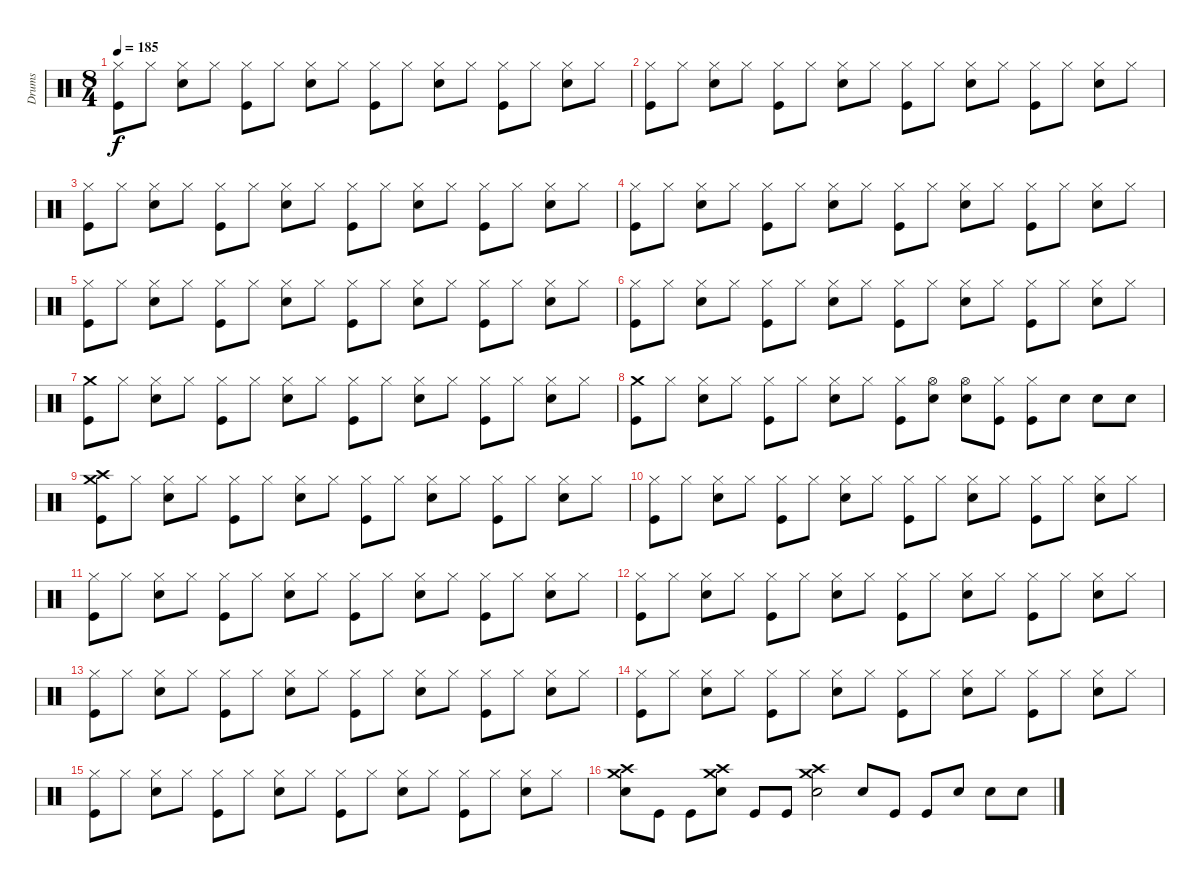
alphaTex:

\track ("Drums" "Drums") {instrument percussion}
\staff {score}
\articulation defaults
\ts (8 4)
\tempo 185
\clef neutral
\ks c
("Hi-Hat (closed)" "Kick (hit)").8{dy f} "Hi-Hat (closed)".8 ("Hi-Hat (closed)" "Snare (hit) 2").8 "Hi-Hat (closed)".8 ("Hi-Hat (closed)" "Kick (hit)").8 "Hi-Hat (closed)".8 ("Hi-Hat (closed)" "Snare (hit) 2").8 "Hi-Hat (closed)".8 ("Hi-Hat (closed)" "Kick (hit)").8 "Hi-Hat (closed)".8 ("Hi-Hat (closed)" "Snare (hit) 2").8 "Hi-Hat (closed)".8 ("Hi-Hat (closed)" "Kick (hit)").8 "Hi-Hat (closed)".8 ("Hi-Hat (closed)" "Snare (hit) 2").8 "Hi-Hat (closed)".8 |
("Hi-Hat (closed)" "Kick (hit)").8 "Hi-Hat (closed)".8 ("Hi-Hat (closed)" "Snare (hit) 2").8 "Hi-Hat (closed)".8 ("Hi-Hat (closed)" "Kick (hit)").8 "Hi-Hat (closed)".8 ("Hi-Hat (closed)" "Snare (hit) 2").8 "Hi-Hat (closed)".8 ("Hi-Hat (closed)" "Kick (hit)").8 "Hi-Hat (closed)".8 ("Hi-Hat (closed)" "Snare (hit) 2").8 "Hi-Hat (closed)".8 ("Hi-Hat (closed)" "Kick (hit)").8 "Hi-Hat (closed)".8 ("Hi-Hat (closed)" "Snare (hit) 2").8 "Hi-Hat (closed)".8 |
("Hi-Hat (closed)" "Kick (hit)").8 "Hi-Hat (closed)".8 ("Hi-Hat (closed)" "Snare (hit) 2").8 "Hi-Hat (closed)".8 ("Hi-Hat (closed)" "Kick (hit)").8 "Hi-Hat (closed)".8 ("Hi-Hat (closed)" "Snare (hit) 2").8 "Hi-Hat (closed)".8 ("Hi-Hat (closed)" "Kick (hit)").8 "Hi-Hat (closed)".8 ("Hi-Hat (closed)" "Snare (hit) 2").8 "Hi-Hat (closed)".8 ("Hi-Hat (closed)" "Kick (hit)").8 "Hi-Hat (closed)".8 ("Hi-Hat (closed)" "Snare (hit) 2").8 "Hi-Hat (closed)".8 |
("Hi-Hat (closed)" "Kick (hit)").8 "Hi-Hat (closed)".8 ("Hi-Hat (closed)" "Snare (hit) 2").8 "Hi-Hat (closed)".8 ("Hi-Hat (closed)" "Kick (hit)").8 "Hi-Hat (closed)".8 ("Hi-Hat (closed)" "Snare (hit) 2").8 "Hi-Hat (closed)".8 ("Hi-Hat (closed)" "Kick (hit)").8 "Hi-Hat (closed)".8 ("Hi-Hat (closed)" "Snare (hit) 2").8 "Hi-Hat (closed)".8 ("Hi-Hat (closed)" "Kick (hit)").8 "Hi-Hat (closed)".8 ("Hi-Hat (closed)" "Snare (hit) 2").8 "Hi-Hat (closed)".8 |
("Hi-Hat (closed)" "Kick (hit)").8 "Hi-Hat (closed)".8 ("Hi-Hat (closed)" "Snare (hit) 2").8 "Hi-Hat (closed)".8 ("Hi-Hat (closed)" "Kick (hit)").8 "Hi-Hat (closed)".8 ("Hi-Hat (closed)" "Snare (hit) 2").8 "Hi-Hat (closed)".8 ("Hi-Hat (closed)" "Kick (hit)").8 "Hi-Hat (closed)".8 ("Hi-Hat (closed)" "Snare (hit) 2").8 "Hi-Hat (closed)".8 ("Hi-Hat (closed)" "Kick (hit)").8 "Hi-Hat (closed)".8 ("Hi-Hat (closed)" "Snare (hit) 2").8 "Hi-Hat (closed)".8 |
("Hi-Hat (closed)" "Kick (hit)").8 "Hi-Hat (closed)".8 ("Hi-Hat (closed)" "Snare (hit) 2").8 "Hi-Hat (closed)".8 ("Hi-Hat (closed)" "Kick (hit)").8 "Hi-Hat (closed)".8 ("Hi-Hat (closed)" "Snare (hit) 2").8 "Hi-Hat (closed)".8 ("Hi-Hat (closed)" "Kick (hit)").8 "Hi-Hat (closed)".8 ("Hi-Hat (closed)" "Snare (hit) 2").8 "Hi-Hat (closed)".8 ("Hi-Hat (closed)" "Kick (hit)").8 "Hi-Hat (closed)".8 ("Hi-Hat (closed)" "Snare (hit) 2").8 "Hi-Hat (closed)".8 |
("Crash medium (hit)" "Kick (hit)").8 "Hi-Hat (closed)".8 ("Hi-Hat (closed)" "Snare (hit) 2").8 "Hi-Hat (closed)".8 ("Hi-Hat (closed)" "Kick (hit)").8 "Hi-Hat (closed)".8 ("Hi-Hat (closed)" "Snare (hit) 2").8 "Hi-Hat (closed)".8 ("Hi-Hat (closed)" "Kick (hit)").8 "Hi-Hat (closed)".8 ("Hi-Hat (closed)" "Snare (hit) 2").8 "Hi-Hat (closed)".8 ("Hi-Hat (closed)" "Kick (hit)").8 "Hi-Hat (closed)".8 ("Hi-Hat (closed)" "Snare (hit) 2").8 "Hi-Hat (closed)".8 |
("Crash medium (hit)" "Kick (hit)").8 "Hi-Hat (closed)".8 ("Hi-Hat (closed)" "Snare (hit) 2").8 "Hi-Hat (closed)".8 ("Hi-Hat (closed)" "Kick (hit)").8 "Hi-Hat (closed)".8 ("Hi-Hat (closed)" "Snare (hit) 2").8 "Hi-Hat (closed)".8 ("Hi-Hat (closed)" "Kick (hit)").8 ("Hi-Hat (open)" "Snare (hit) 2").8 ("Hi-Hat (open)" "Snare (hit) 2").8 ("Hi-Hat (closed)" "Kick (hit)").8 ("Hi-Hat (closed)" "Kick (hit)").8 "Snare (hit) 2".8 "Snare (hit) 2".8 "Snare (hit) 2".8 |
("Crash medium (hit)" "Crash high (hit)" "Kick (hit)").8 "Hi-Hat (closed)".8 ("Hi-Hat (closed)" "Snare (hit) 2").8 "Hi-Hat (closed)".8 ("Hi-Hat (closed)" "Kick (hit)").8 "Hi-Hat (closed)".8 ("Hi-Hat (closed)" "Snare (hit) 2").8 "Hi-Hat (closed)".8 ("Hi-Hat (closed)" "Kick (hit)").8 "Hi-Hat (closed)".8 ("Hi-Hat (closed)" "Snare (hit) 2").8 "Hi-Hat (closed)".8 ("Hi-Hat (closed)" "Kick (hit)").8 "Hi-Hat (closed)".8 ("Hi-Hat (closed)" "Snare (hit) 2").8 "Hi-Hat (closed)".8 |
("Hi-Hat (closed)" "Kick (hit)").8 "Hi-Hat (closed)".8 ("Hi-Hat (closed)" "Snare (hit) 2").8 "Hi-Hat (closed)".8 ("Hi-Hat (closed)" "Kick (hit)").8 "Hi-Hat (closed)".8 ("Hi-Hat (closed)" "Snare (hit) 2").8 "Hi-Hat (closed)".8 ("Hi-Hat (closed)" "Kick (hit)").8 "Hi-Hat (closed)".8 ("Hi-Hat (closed)" "Snare (hit) 2").8 "Hi-Hat (closed)".8 ("Hi-Hat (closed)" "Kick (hit)").8 "Hi-Hat (closed)".8 ("Hi-Hat (closed)" "Snare (hit) 2").8 "Hi-Hat (closed)".8 |
("Hi-Hat (closed)" "Kick (hit)").8 "Hi-Hat (closed)".8 ("Hi-Hat (closed)" "Snare (hit) 2").8 "Hi-Hat (closed)".8 ("Hi-Hat (closed)" "Kick (hit)").8 "Hi-Hat (closed)".8 ("Hi-Hat (closed)" "Snare (hit) 2").8 "Hi-Hat (closed)".8 ("Hi-Hat (closed)" "Kick (hit)").8 "Hi-Hat (closed)".8 ("Hi-Hat (closed)" "Snare (hit) 2").8 "Hi-Hat (closed)".8 ("Hi-Hat (closed)" "Kick (hit)").8 "Hi-Hat (closed)".8 ("Hi-Hat (closed)" "Snare (hit) 2").8 "Hi-Hat (closed)".8 |
("Hi-Hat (closed)" "Kick (hit)").8 "Hi-Hat (closed)".8 ("Hi-Hat (closed)" "Snare (hit) 2").8 "Hi-Hat (closed)".8 ("Hi-Hat (closed)" "Kick (hit)").8 "Hi-Hat (closed)".8 ("Hi-Hat (closed)" "Snare (hit) 2").8 "Hi-Hat (closed)".8 ("Hi-Hat (closed)" "Kick (hit)").8 "Hi-Hat (closed)".8 ("Hi-Hat (closed)" "Snare (hit) 2").8 "Hi-Hat (closed)".8 ("Hi-Hat (closed)" "Kick (hit)").8 "Hi-Hat (closed)".8 ("Hi-Hat (closed)" "Snare (hit) 2").8 "Hi-Hat (closed)".8 |
("Hi-Hat (closed)" "Kick (hit)").8 "Hi-Hat (closed)".8 ("Hi-Hat (closed)" "Snare (hit) 2").8 "Hi-Hat (closed)".8 ("Hi-Hat (closed)" "Kick (hit)").8 "Hi-Hat (closed)".8 ("Hi-Hat (closed)" "Snare (hit) 2").8 "Hi-Hat (closed)".8 ("Hi-Hat (closed)" "Kick (hit)").8 "Hi-Hat (closed)".8 ("Hi-Hat (closed)" "Snare (hit) 2").8 "Hi-Hat (closed)".8 ("Hi-Hat (closed)" "Kick (hit)").8 "Hi-Hat (closed)".8 ("Hi-Hat (closed)" "Snare (hit) 2").8 "Hi-Hat (closed)".8 |
("Hi-Hat (closed)" "Kick (hit)").8 "Hi-Hat (closed)".8 ("Hi-Hat (closed)" "Snare (hit) 2").8 "Hi-Hat (closed)".8 ("Hi-Hat (closed)" "Kick (hit)").8 "Hi-Hat (closed)".8 ("Hi-Hat (closed)" "Snare (hit) 2").8 "Hi-Hat (closed)".8 ("Hi-Hat (closed)" "Kick (hit)").8 "Hi-Hat (closed)".8 ("Hi-Hat (closed)" "Snare (hit) 2").8 "Hi-Hat (closed)".8 ("Hi-Hat (closed)" "Kick (hit)").8 "Hi-Hat (closed)".8 ("Hi-Hat (closed)" "Snare (hit) 2").8 "Hi-Hat (closed)".8 |
("Hi-Hat (closed)" "Kick (hit)").8 "Hi-Hat (closed)".8 ("Hi-Hat (closed)" "Snare (hit) 2").8 "Hi-Hat (closed)".8 ("Hi-Hat (closed)" "Kick (hit)").8 "Hi-Hat (closed)".8 ("Hi-Hat (closed)" "Snare (hit) 2").8 "Hi-Hat (closed)".8 ("Hi-Hat (closed)" "Kick (hit)").8 "Hi-Hat (closed)".8 ("Hi-Hat (closed)" "Snare (hit) 2").8 "Hi-Hat (closed)".8 ("Hi-Hat (closed)" "Kick (hit)").8 "Hi-Hat (closed)".8 ("Hi-Hat (closed)" "Snare (hit) 2").8 "Hi-Hat (closed)".8 |
("Crash medium (hit)" "Crash high (hit)" "Snare (hit) 2").8 "Kick (hit)".8 "Kick (hit)".8 ("Crash medium (hit)" "Crash high (hit)" "Snare (hit) 2").8 "Kick (hit)".8 "Kick (hit)".8 ("Crash medium (hit)" "Crash high (hit)" "Snare (hit) 2").2 "Snare (hit) 2".8 "Kick (hit)".8 "Kick (hit)".8 "Snare (hit) 2".8 "Snare (hit) 2".8 "Snare (hit) 2".8
